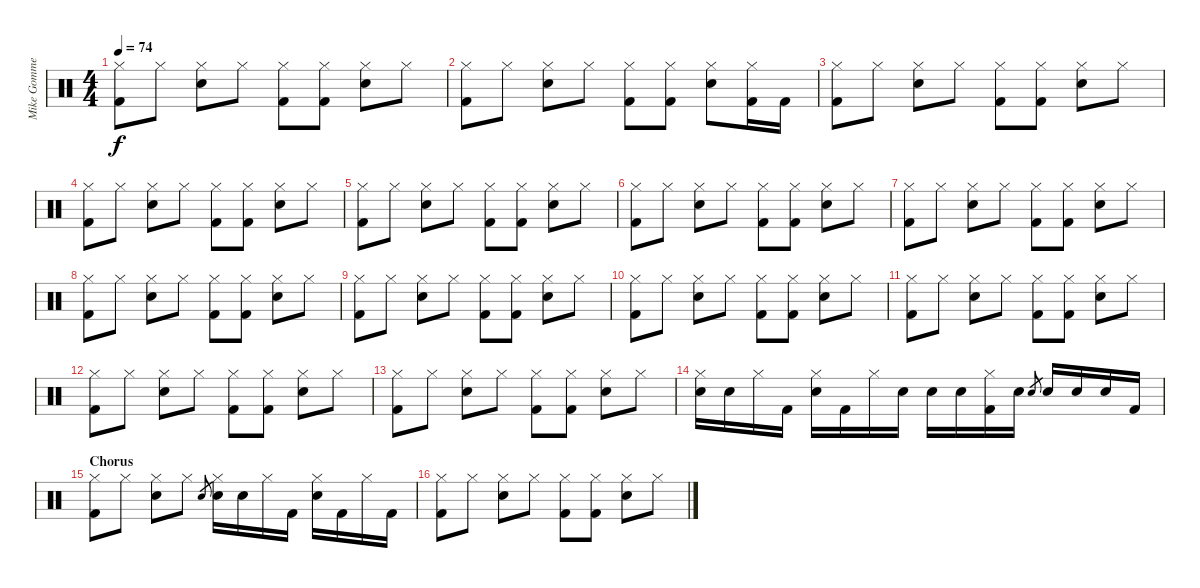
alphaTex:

\track ("Mike Gommeringer" "Mike Gomme") {instrument percussion}
\staff {score}
\articulation defaults
\ts (4 4)
\tempo 74
\clef neutral
\ks c
("Hi-Hat (closed)" "Kick (hit) 2").8{dy f} "Hi-Hat (closed)".8 ("Hi-Hat (closed)" "Snare (hit) 2").8 "Hi-Hat (closed)".8 ("Hi-Hat (closed)" "Kick (hit) 2").8 ("Hi-Hat (closed)" "Kick (hit) 2").8 ("Hi-Hat (closed)" "Snare (hit) 2").8 "Hi-Hat (closed)".8 |
("Hi-Hat (closed)" "Kick (hit) 2").8 "Hi-Hat (closed)".8 ("Hi-Hat (closed)" "Snare (hit) 2").8 "Hi-Hat (closed)".8 ("Hi-Hat (closed)" "Kick (hit) 2").8 ("Hi-Hat (closed)" "Kick (hit) 2").8 ("Hi-Hat (closed)" "Snare (hit) 2").8 ("Hi-Hat (closed)" "Kick (hit) 2").16 "Kick (hit) 2".16 |
("Hi-Hat (closed)" "Kick (hit) 2").8 "Hi-Hat (closed)".8 ("Hi-Hat (closed)" "Snare (hit) 2").8 "Hi-Hat (closed)".8 ("Hi-Hat (closed)" "Kick (hit) 2").8 ("Hi-Hat (closed)" "Kick (hit) 2").8 ("Hi-Hat (closed)" "Snare (hit) 2").8 "Hi-Hat (closed)".8 |
("Hi-Hat (closed)" "Kick (hit) 2").8 "Hi-Hat (closed)".8 ("Hi-Hat (closed)" "Snare (hit) 2").8 "Hi-Hat (closed)".8 ("Hi-Hat (closed)" "Kick (hit) 2").8 ("Hi-Hat (closed)" "Kick (hit) 2").8 ("Hi-Hat (closed)" "Snare (hit) 2").8 "Hi-Hat (closed)".8 |
("Hi-Hat (closed)" "Kick (hit) 2").8 "Hi-Hat (closed)".8 ("Hi-Hat (closed)" "Snare (hit) 2").8 "Hi-Hat (closed)".8 ("Hi-Hat (closed)" "Kick (hit) 2").8 ("Hi-Hat (closed)" "Kick (hit) 2").8 ("Hi-Hat (closed)" "Snare (hit) 2").8 "Hi-Hat (closed)".8 |
("Hi-Hat (closed)" "Kick (hit) 2").8 "Hi-Hat (closed)".8 ("Hi-Hat (closed)" "Snare (hit) 2").8 "Hi-Hat (closed)".8 ("Hi-Hat (closed)" "Kick (hit) 2").8 ("Hi-Hat (closed)" "Kick (hit) 2").8 ("Hi-Hat (closed)" "Snare (hit) 2").8 "Hi-Hat (closed)".8 |
("Hi-Hat (closed)" "Kick (hit) 2").8 "Hi-Hat (closed)".8 ("Hi-Hat (closed)" "Snare (hit) 2").8 "Hi-Hat (closed)".8 ("Hi-Hat (closed)" "Kick (hit) 2").8 ("Hi-Hat (closed)" "Kick (hit) 2").8 ("Hi-Hat (closed)" "Snare (hit) 2").8 "Hi-Hat (closed)".8 |
("Hi-Hat (closed)" "Kick (hit) 2").8 "Hi-Hat (closed)".8 ("Hi-Hat (closed)" "Snare (hit) 2").8 "Hi-Hat (closed)".8 ("Hi-Hat (closed)" "Kick (hit) 2").8 ("Hi-Hat (closed)" "Kick (hit) 2").8 ("Hi-Hat (closed)" "Snare (hit) 2").8 "Hi-Hat (closed)".8 |
("Hi-Hat (closed)" "Kick (hit) 2").8 "Hi-Hat (closed)".8 ("Hi-Hat (closed)" "Snare (hit) 2").8 "Hi-Hat (closed)".8 ("Hi-Hat (closed)" "Kick (hit) 2").8 ("Hi-Hat (closed)" "Kick (hit) 2").8 ("Hi-Hat (closed)" "Snare (hit) 2").8 "Hi-Hat (closed)".8 |
("Hi-Hat (closed)" "Kick (hit) 2").8 "Hi-Hat (closed)".8 ("Hi-Hat (closed)" "Snare (hit) 2").8 "Hi-Hat (closed)".8 ("Hi-Hat (closed)" "Kick (hit) 2").8 ("Hi-Hat (closed)" "Kick (hit) 2").8 ("Hi-Hat (closed)" "Snare (hit) 2").8 "Hi-Hat (closed)".8 |
("Hi-Hat (closed)" "Kick (hit) 2").8 "Hi-Hat (closed)".8 ("Hi-Hat (closed)" "Snare (hit) 2").8 "Hi-Hat (closed)".8 ("Hi-Hat (closed)" "Kick (hit) 2").8 ("Hi-Hat (closed)" "Kick (hit) 2").8 ("Hi-Hat (closed)" "Snare (hit) 2").8 "Hi-Hat (closed)".8 |
("Hi-Hat (closed)" "Kick (hit) 2").8 "Hi-Hat (closed)".8 ("Hi-Hat (closed)" "Snare (hit) 2").8 "Hi-Hat (closed)".8 ("Hi-Hat (closed)" "Kick (hit) 2").8 ("Hi-Hat (closed)" "Kick (hit) 2").8 ("Hi-Hat (closed)" "Snare (hit) 2").8 "Hi-Hat (closed)".8 |
("Hi-Hat (closed)" "Kick (hit) 2").8 "Hi-Hat (closed)".8 ("Hi-Hat (closed)" "Snare (hit) 2").8 "Hi-Hat (closed)".8 ("Hi-Hat (closed)" "Kick (hit) 2").8 ("Hi-Hat (closed)" "Kick (hit) 2").8 ("Hi-Hat (closed)" "Snare (hit) 2").8 "Hi-Hat (closed)".8 |
("Hi-Hat (closed)" "Snare (hit) 2").16 "Snare (hit) 2".16 "Hi-Hat (closed)".16 "Kick (hit) 2".16 ("Hi-Hat (closed)" "Snare (hit) 2").16 "Kick (hit) 2".16 "Hi-Hat (closed)".16 "Snare (hit) 2".16 "Snare (hit) 2".16 "Snare (hit) 2".16 ("Hi-Hat (closed)" "Kick (hit) 2").16 "Snare (hit) 2".16 "Snare (hit) 2".8{gr} "Snare (hit) 2".16 "Snare (hit) 2".16 "Snare (hit) 2".16 "Kick (hit) 2".16 |
\section ("" "Chorus")
("Hi-Hat (closed)" "Kick (hit) 2").8 "Hi-Hat (closed)".8 ("Hi-Hat (closed)" "Snare (hit) 2").8 "Hi-Hat (closed)".8 "Snare (hit) 2".8{gr} ("Hi-Hat (closed)" "Snare (hit) 2").16 "Snare (hit) 2".16 "Hi-Hat (closed)".16 "Kick (hit) 2".16 ("Hi-Hat (closed)" "Snare (hit) 2").16 "Kick (hit) 2".16 "Hi-Hat (closed)".16 "Kick (hit) 2".16 |
("Hi-Hat (closed)" "Kick (hit) 2").8 "Hi-Hat (closed)".8 ("Hi-Hat (closed)" "Snare (hit) 2").8 "Hi-Hat (closed)".8 ("Hi-Hat (closed)" "Kick (hit) 2").8 ("Hi-Hat (closed)" "Kick (hit) 2").8 ("Hi-Hat (closed)" "Snare (hit) 2").8 "Hi-Hat (closed)".8
